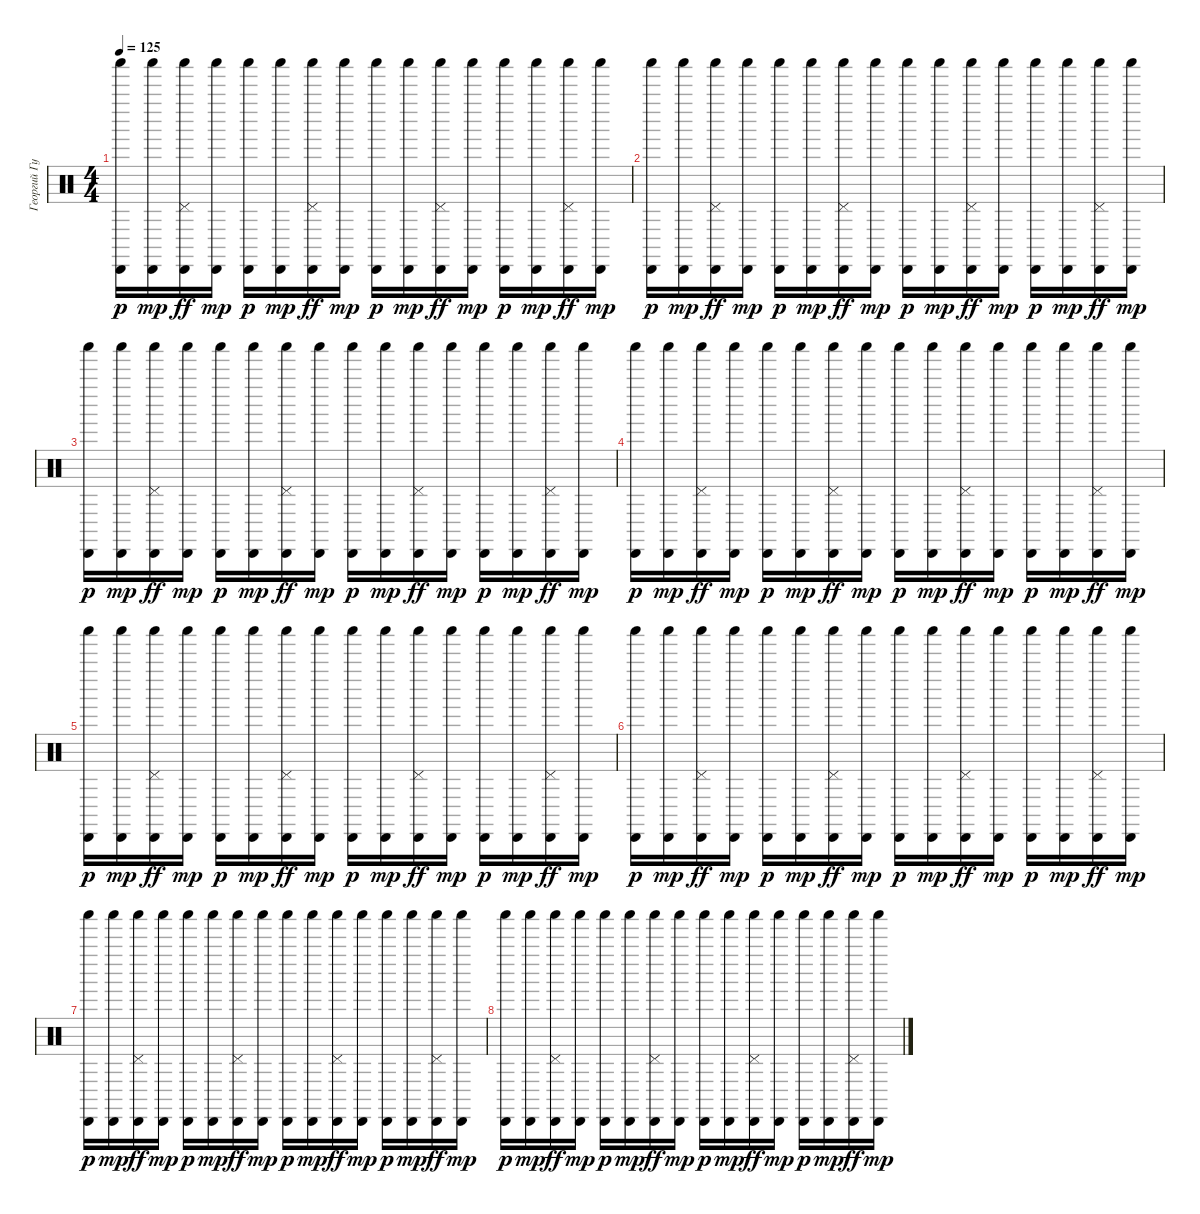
\track ("Георгий Гурьянов_2" "Георгий Гу") {instrument percussion}
\staff {score}
\articulation defaults
\ts (4 4)
\tempo 125
\clef neutral
\ks c
("Cabasa (hit)" "Shaker (hit)").16{dy p} ("Cabasa (hit)" "Shaker (hit)").16{dy mp} ("Cabasa (hit)" "Shaker (hit)" "Pedal Hi-Hat (hit)").16{dy ff} ("Cabasa (hit)" "Shaker (hit)").16{dy mp} ("Cabasa (hit)" "Shaker (hit)").16{dy p} ("Cabasa (hit)" "Shaker (hit)").16{dy mp} ("Cabasa (hit)" "Shaker (hit)" "Pedal Hi-Hat (hit)").16{dy ff} ("Cabasa (hit)" "Shaker (hit)").16{dy mp} ("Cabasa (hit)" "Shaker (hit)").16{dy p} ("Cabasa (hit)" "Shaker (hit)").16{dy mp} ("Cabasa (hit)" "Shaker (hit)" "Pedal Hi-Hat (hit)").16{dy ff} ("Cabasa (hit)" "Shaker (hit)").16{dy mp} ("Cabasa (hit)" "Shaker (hit)").16{dy p} ("Cabasa (hit)" "Shaker (hit)").16{dy mp} ("Cabasa (hit)" "Shaker (hit)" "Pedal Hi-Hat (hit)").16{dy ff} ("Cabasa (hit)" "Shaker (hit)").16{dy mp} |
("Cabasa (hit)" "Shaker (hit)").16{dy p} ("Cabasa (hit)" "Shaker (hit)").16{dy mp} ("Cabasa (hit)" "Shaker (hit)" "Pedal Hi-Hat (hit)").16{dy ff} ("Cabasa (hit)" "Shaker (hit)").16{dy mp} ("Cabasa (hit)" "Shaker (hit)").16{dy p} ("Cabasa (hit)" "Shaker (hit)").16{dy mp} ("Cabasa (hit)" "Shaker (hit)" "Pedal Hi-Hat (hit)").16{dy ff} ("Cabasa (hit)" "Shaker (hit)").16{dy mp} ("Cabasa (hit)" "Shaker (hit)").16{dy p} ("Cabasa (hit)" "Shaker (hit)").16{dy mp} ("Cabasa (hit)" "Shaker (hit)" "Pedal Hi-Hat (hit)").16{dy ff} ("Cabasa (hit)" "Shaker (hit)").16{dy mp} ("Cabasa (hit)" "Shaker (hit)").16{dy p} ("Cabasa (hit)" "Shaker (hit)").16{dy mp} ("Cabasa (hit)" "Shaker (hit)" "Pedal Hi-Hat (hit)").16{dy ff} ("Cabasa (hit)" "Shaker (hit)").16{dy mp} |
("Cabasa (hit)" "Shaker (hit)").16{dy p} ("Cabasa (hit)" "Shaker (hit)").16{dy mp} ("Cabasa (hit)" "Shaker (hit)" "Pedal Hi-Hat (hit)").16{dy ff} ("Cabasa (hit)" "Shaker (hit)").16{dy mp} ("Cabasa (hit)" "Shaker (hit)").16{dy p} ("Cabasa (hit)" "Shaker (hit)").16{dy mp} ("Cabasa (hit)" "Shaker (hit)" "Pedal Hi-Hat (hit)").16{dy ff} ("Cabasa (hit)" "Shaker (hit)").16{dy mp} ("Cabasa (hit)" "Shaker (hit)").16{dy p} ("Cabasa (hit)" "Shaker (hit)").16{dy mp} ("Cabasa (hit)" "Shaker (hit)" "Pedal Hi-Hat (hit)").16{dy ff} ("Cabasa (hit)" "Shaker (hit)").16{dy mp} ("Cabasa (hit)" "Shaker (hit)").16{dy p} ("Cabasa (hit)" "Shaker (hit)").16{dy mp} ("Cabasa (hit)" "Shaker (hit)" "Pedal Hi-Hat (hit)").16{dy ff} ("Cabasa (hit)" "Shaker (hit)").16{dy mp} |
("Cabasa (hit)" "Shaker (hit)").16{dy p} ("Cabasa (hit)" "Shaker (hit)").16{dy mp} ("Cabasa (hit)" "Shaker (hit)" "Pedal Hi-Hat (hit)").16{dy ff} ("Cabasa (hit)" "Shaker (hit)").16{dy mp} ("Cabasa (hit)" "Shaker (hit)").16{dy p} ("Cabasa (hit)" "Shaker (hit)").16{dy mp} ("Cabasa (hit)" "Shaker (hit)" "Pedal Hi-Hat (hit)").16{dy ff} ("Cabasa (hit)" "Shaker (hit)").16{dy mp} ("Cabasa (hit)" "Shaker (hit)").16{dy p} ("Cabasa (hit)" "Shaker (hit)").16{dy mp} ("Cabasa (hit)" "Shaker (hit)" "Pedal Hi-Hat (hit)").16{dy ff} ("Cabasa (hit)" "Shaker (hit)").16{dy mp} ("Cabasa (hit)" "Shaker (hit)").16{dy p} ("Cabasa (hit)" "Shaker (hit)").16{dy mp} ("Cabasa (hit)" "Shaker (hit)" "Pedal Hi-Hat (hit)").16{dy ff} ("Cabasa (hit)" "Shaker (hit)").16{dy mp} |
("Cabasa (hit)" "Shaker (hit)").16{dy p} ("Cabasa (hit)" "Shaker (hit)").16{dy mp} ("Cabasa (hit)" "Shaker (hit)" "Pedal Hi-Hat (hit)").16{dy ff} ("Cabasa (hit)" "Shaker (hit)").16{dy mp} ("Cabasa (hit)" "Shaker (hit)").16{dy p} ("Cabasa (hit)" "Shaker (hit)").16{dy mp} ("Cabasa (hit)" "Shaker (hit)" "Pedal Hi-Hat (hit)").16{dy ff} ("Cabasa (hit)" "Shaker (hit)").16{dy mp} ("Cabasa (hit)" "Shaker (hit)").16{dy p} ("Cabasa (hit)" "Shaker (hit)").16{dy mp} ("Cabasa (hit)" "Shaker (hit)" "Pedal Hi-Hat (hit)").16{dy ff} ("Cabasa (hit)" "Shaker (hit)").16{dy mp} ("Cabasa (hit)" "Shaker (hit)").16{dy p} ("Cabasa (hit)" "Shaker (hit)").16{dy mp} ("Cabasa (hit)" "Shaker (hit)" "Pedal Hi-Hat (hit)").16{dy ff} ("Cabasa (hit)" "Shaker (hit)").16{dy mp} |
("Cabasa (hit)" "Shaker (hit)").16{dy p} ("Cabasa (hit)" "Shaker (hit)").16{dy mp} ("Cabasa (hit)" "Shaker (hit)" "Pedal Hi-Hat (hit)").16{dy ff} ("Cabasa (hit)" "Shaker (hit)").16{dy mp} ("Cabasa (hit)" "Shaker (hit)").16{dy p} ("Cabasa (hit)" "Shaker (hit)").16{dy mp} ("Cabasa (hit)" "Shaker (hit)" "Pedal Hi-Hat (hit)").16{dy ff} ("Cabasa (hit)" "Shaker (hit)").16{dy mp} ("Cabasa (hit)" "Shaker (hit)").16{dy p} ("Cabasa (hit)" "Shaker (hit)").16{dy mp} ("Cabasa (hit)" "Shaker (hit)" "Pedal Hi-Hat (hit)").16{dy ff} ("Cabasa (hit)" "Shaker (hit)").16{dy mp} ("Cabasa (hit)" "Shaker (hit)").16{dy p} ("Cabasa (hit)" "Shaker (hit)").16{dy mp} ("Cabasa (hit)" "Shaker (hit)" "Pedal Hi-Hat (hit)").16{dy ff} ("Cabasa (hit)" "Shaker (hit)").16{dy mp} |
("Cabasa (hit)" "Shaker (hit)").16{dy p} ("Cabasa (hit)" "Shaker (hit)").16{dy mp} ("Cabasa (hit)" "Shaker (hit)" "Pedal Hi-Hat (hit)").16{dy ff} ("Cabasa (hit)" "Shaker (hit)").16{dy mp} ("Cabasa (hit)" "Shaker (hit)").16{dy p} ("Cabasa (hit)" "Shaker (hit)").16{dy mp} ("Cabasa (hit)" "Shaker (hit)" "Pedal Hi-Hat (hit)").16{dy ff} ("Cabasa (hit)" "Shaker (hit)").16{dy mp} ("Cabasa (hit)" "Shaker (hit)").16{dy p} ("Cabasa (hit)" "Shaker (hit)").16{dy mp} ("Cabasa (hit)" "Shaker (hit)" "Pedal Hi-Hat (hit)").16{dy ff} ("Cabasa (hit)" "Shaker (hit)").16{dy mp} ("Cabasa (hit)" "Shaker (hit)").16{dy p} ("Cabasa (hit)" "Shaker (hit)").16{dy mp} ("Cabasa (hit)" "Shaker (hit)" "Pedal Hi-Hat (hit)").16{dy ff} ("Cabasa (hit)" "Shaker (hit)").16{dy mp} |
("Cabasa (hit)" "Shaker (hit)").16{dy p} ("Cabasa (hit)" "Shaker (hit)").16{dy mp} ("Cabasa (hit)" "Shaker (hit)" "Pedal Hi-Hat (hit)").16{dy ff} ("Cabasa (hit)" "Shaker (hit)").16{dy mp} ("Cabasa (hit)" "Shaker (hit)").16{dy p} ("Cabasa (hit)" "Shaker (hit)").16{dy mp} ("Cabasa (hit)" "Shaker (hit)" "Pedal Hi-Hat (hit)").16{dy ff} ("Cabasa (hit)" "Shaker (hit)").16{dy mp} ("Cabasa (hit)" "Shaker (hit)").16{dy p} ("Cabasa (hit)" "Shaker (hit)").16{dy mp} ("Cabasa (hit)" "Shaker (hit)" "Pedal Hi-Hat (hit)").16{dy ff} ("Cabasa (hit)" "Shaker (hit)").16{dy mp} ("Cabasa (hit)" "Shaker (hit)").16{dy p} ("Cabasa (hit)" "Shaker (hit)").16{dy mp} ("Cabasa (hit)" "Shaker (hit)" "Pedal Hi-Hat (hit)").16{dy ff} ("Cabasa (hit)" "Shaker (hit)").16{dy mp}
